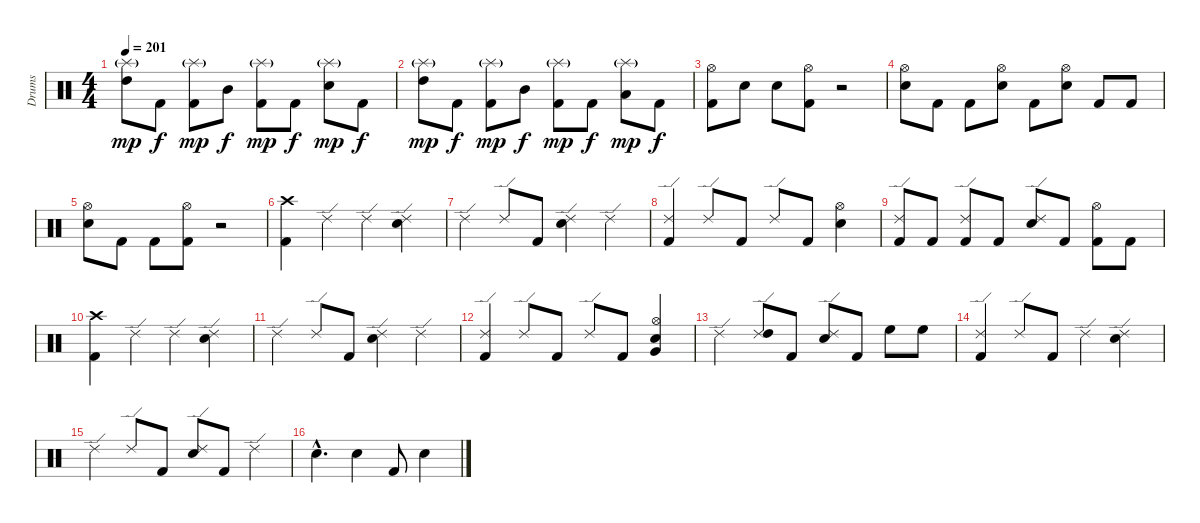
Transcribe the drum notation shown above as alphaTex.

\track ("Drums" "Drums") {instrument percussion}
\staff {score}
\articulation defaults
\ts (4 4)
\tempo 201
\clef neutral
\ks c
("Splash (hit)"{g} "High Tom (hit)").8{dy mp} "Kick (hit) 2".8{dy f} ("Splash (hit)"{g} "Kick (hit) 2").8{dy mp} "Mid Tom (hit)".8{dy f} ("Splash (hit)"{g} "Kick (hit) 2").8{dy mp} "Kick (hit) 2".8{dy f} ("Splash (hit)"{g} "Snare (hit) 2").8{dy mp} "Kick (hit) 2".8{dy f} |
("Splash (hit)"{g} "High Tom (hit)").8{dy mp} "Kick (hit) 2".8{dy f} ("Splash (hit)"{g} "Kick (hit) 2").8{dy mp} "Mid Tom (hit)".8{dy f} ("Splash (hit)"{g} "Kick (hit) 2").8{dy mp} "Kick (hit) 2".8{dy f} ("Splash (hit)"{g} "Low Tom (hit)").8{dy mp} "Kick (hit) 2".8{dy f} |
("Hi-Hat (open)" "Kick (hit) 2").8 "Snare (hit) 2".8 "Snare (hit) 2".8 ("Hi-Hat (open)" "Kick (hit) 2").8 r.2 |
("Hi-Hat (open)" "Snare (hit) 2").8 "Kick (hit) 2".8 "Kick (hit) 2".8 ("Hi-Hat (open)" "Snare (hit) 2").8 "Kick (hit) 2".8 ("Hi-Hat (open)" "Snare (hit) 2").8 "Kick (hit) 2".8 "Kick (hit) 2".8 |
("Hi-Hat (open)" "Snare (hit) 2").8 "Kick (hit) 2".8 "Kick (hit) 2".8 ("Hi-Hat (open)" "Kick (hit) 2").8 r.2 |
("Crash high (hit)" "Kick (hit) 2").4 "Ride (edge) 2".4 "Ride (edge) 2".4 ("Ride (edge) 2" "Snare (hit) 2").4 |
"Ride (edge) 2".4 "Ride (edge) 2".8 "Kick (hit) 2".8 ("Ride (edge) 2" "Snare (hit) 2").4 "Ride (edge) 2".4 |
("Ride (edge) 2" "Kick (hit) 2").4 "Ride (edge) 2".8 "Kick (hit) 2".8 "Ride (edge) 2".8 "Kick (hit) 2".8 ("Hi-Hat (open)" "Snare (hit) 2").4 |
("Ride (edge) 2" "Kick (hit) 2").8 "Kick (hit) 2".8 ("Ride (edge) 2" "Kick (hit) 2").8 "Kick (hit) 2".8 ("Ride (edge) 2" "Snare (hit) 2").8 "Kick (hit) 2".8 ("Hi-Hat (open)" "Kick (hit) 2").8 "Kick (hit) 2".8 |
("Crash high (hit)" "Kick (hit) 2").4 "Ride (edge) 2".4 "Ride (edge) 2".4 ("Ride (edge) 2" "Snare (hit) 2").4 |
"Ride (edge) 2".4 "Ride (edge) 2".8 "Kick (hit) 2".8 ("Ride (edge) 2" "Snare (hit) 2").4 "Ride (edge) 2".4 |
("Ride (edge) 2" "Kick (hit) 2").4 "Ride (edge) 2".8 "Kick (hit) 2".8 "Ride (edge) 2".8 "Kick (hit) 2".8 ("Hi-Hat (open)" "Snare (hit) 2" "Very Low Tom (hit)").4 |
"Ride (edge) 2".4 ("Ride (edge) 2" "High Tom (hit)").8 "Kick (hit) 2".8 ("Ride (edge) 2" "Snare (hit) 2").8 "Kick (hit) 2".8 "High Floor Tom (hit)".8 "High Floor Tom (hit)".8 |
("Ride (edge) 2" "Kick (hit) 2").4 "Ride (edge) 2".8 "Kick (hit) 2".8 "Ride (edge) 2".4 ("Ride (edge) 2" "Snare (hit) 2").4 |
"Ride (edge) 2".4 "Ride (edge) 2".8 "Kick (hit) 2".8 ("Ride (edge) 2" "Snare (hit) 2").8 "Kick (hit) 2".8 "Ride (edge) 2".4 |
"Snare (hit) 2"{hac}.4{d} "Snare (hit) 2".4 "Kick (hit) 2".8 "Snare (hit) 2".4
